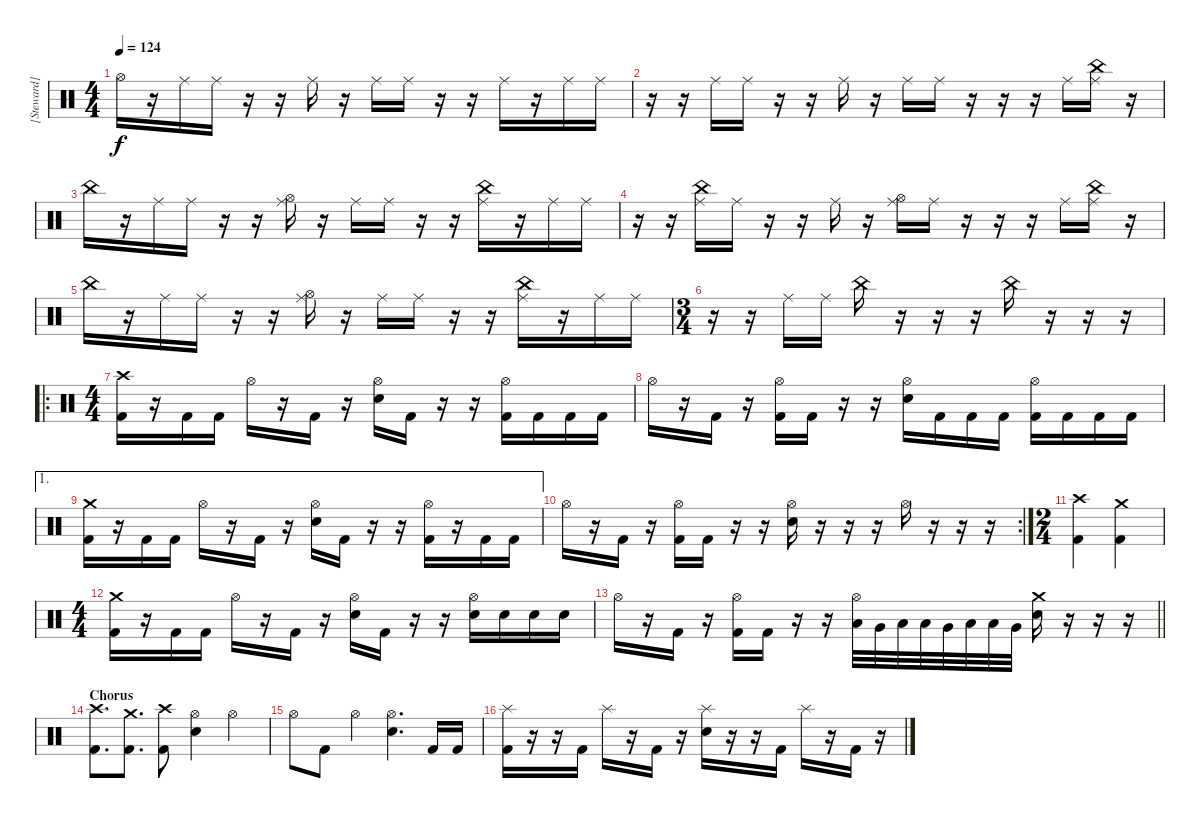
\track ("[Steward]" "[Steward]") {solo instrument percussion}
\staff {score}
\articulation defaults
\ts (4 4)
\tempo 124
\clef neutral
\ks c "Hi-Hat (open)".16{dy f}
r.16 "Ride (middle)".16 "Ride (middle)".16 r.16 r.16 "Ride (middle)".16 r.16 "Ride (middle)".16 "Ride (middle)".16 r.16 r.16 "Ride (middle)".16 r.16 "Ride (middle)".16 "Ride (middle)".16 |
r.16 r.16 "Ride (middle)".16 "Ride (middle)".16 r.16 r.16 "Ride (middle)".16 r.16 "Ride (middle)".16 "Ride (middle)".16 r.16 r.16 r.16 "Ride (middle)".16 ("China (hit)" "Ride (middle)").16 r.16 |
"China (hit)".16 r.16 "Ride (middle)".16 "Ride (middle)".16 r.16 r.16 ("Hi-Hat (open)" "Ride (middle)").16 r.16 "Ride (middle)".16 "Ride (middle)".16 r.16 r.16 ("China (hit)" "Ride (middle)").16 r.16 "Ride (middle)".16 "Ride (middle)".16 |
r.16 r.16 ("China (hit)" "Ride (middle)").16 "Ride (middle)".16 r.16 r.16 "Ride (middle)".16 r.16 ("Hi-Hat (open)" "Ride (middle)").16 "Ride (middle)".16 r.16 r.16 r.16 "Ride (middle)".16 ("China (hit)" "Ride (middle)").16 r.16 |
"China (hit)".16 r.16 "Ride (middle)".16 "Ride (middle)".16 r.16 r.16 ("Hi-Hat (open)" "Ride (middle)").16 r.16 "Ride (middle)".16 "Ride (middle)".16 r.16 r.16 ("China (hit)" "Ride (middle)").16 r.16 "Ride (middle)".16 "Ride (middle)".16 |
\ts (3 4)
r.16 r.16 "Ride (middle)".16 "Ride (middle)".16 "China (hit)".16 r.16 r.16 r.16 "China (hit)".16 r.16 r.16 r.16 |
\ro
\ts (4 4)
("Crash high (hit)" "Kick (hit) 2").16 r.16 "Kick (hit) 2".16 "Kick (hit) 2".16 "Hi-Hat (open)".16 r.16 "Kick (hit) 2".16 r.16 ("Electric Snare (hit)" "Hi-Hat (open)").16 "Kick (hit) 2".16 r.16 r.16 ("Kick (hit) 2" "Hi-Hat (open)").16 "Kick (hit) 2".16 "Kick (hit) 2".16 "Kick (hit) 2".16 |
"Hi-Hat (open)".16 r.16 "Kick (hit) 2".16 r.16 ("Kick (hit) 2" "Hi-Hat (open)").16 "Kick (hit) 2".16 r.16 r.16 ("Electric Snare (hit)" "Hi-Hat (open)").16 "Kick (hit) 2".16 "Kick (hit) 2".16 "Kick (hit) 2".16 ("Kick (hit) 2" "Hi-Hat (open)").16 "Kick (hit) 2".16 "Kick (hit) 2".16 "Kick (hit) 2".16 |
\ae 1
("Crash medium (hit)" "Kick (hit) 2").16 r.16 "Kick (hit) 2".16 "Kick (hit) 2".16 "Hi-Hat (open)".16 r.16 "Kick (hit) 2".16 r.16 ("Electric Snare (hit)" "Hi-Hat (open)").16 "Kick (hit) 2".16 r.16 r.16 ("Kick (hit) 2" "Hi-Hat (open)").16 r.16 "Kick (hit) 2".16 "Kick (hit) 2".16 |
\rc 2 "Hi-Hat (open)".16
r.16 "Kick (hit) 2".16 r.16 ("Kick (hit) 2" "Hi-Hat (open)").16 "Kick (hit) 2".16 r.16 r.16 ("Electric Snare (hit)" "Hi-Hat (open)").16 r.16 r.16 r.16 "Hi-Hat (open)".16 r.16 r.16 r.16 |
\ts (2 4)
("Crash high (hit)" "Kick (hit) 2").4 ("Crash medium (hit)" "Kick (hit) 2").4 |
\ts (4 4)
("Crash medium (hit)" "Kick (hit) 2").16 r.16 "Kick (hit) 2".16 "Kick (hit) 2".16 "Hi-Hat (open)".16 r.16 "Kick (hit) 2".16 r.16 ("Electric Snare (hit)" "Hi-Hat (open)").16 "Kick (hit) 2".16 r.16 r.16 ("Electric Snare (hit)" "Hi-Hat (open)").16 "Electric Snare (hit)".16 "Electric Snare (hit)".16 "Electric Snare (hit)".16 |
\barLineRight lightlight "Hi-Hat (open)".16
r.16 "Kick (hit) 2".16 r.16 ("Kick (hit) 2" "Hi-Hat (open)").16 "Kick (hit) 2".16 r.16 r.16 ("Low Tom (hit)" "Hi-Hat (open)").32 "Very Low Tom (hit)".32 "Low Floor Tom (hit)".32 "Low Tom (hit)".32 "Very Low Tom (hit)".32 "Low Floor Tom (hit)".32 "Low Tom (hit)".32 "Very Low Tom (hit)".32 ("Crash medium (hit)" "Electric Snare (hit)").16 r.16 r.16 r.16 |
\section ("" "Chorus")
("Crash high (hit)" "Kick (hit) 2").8{d} ("Crash medium (hit)" "Kick (hit) 2").8{d} ("Crash high (hit)" "Kick (hit) 2").8 ("Electric Snare (hit)" "Hi-Hat (open)").4 "Hi-Hat (open)".4 |
"Hi-Hat (open)".8 "Kick (hit) 2".8 "Hi-Hat (open)".4 ("Electric Snare (hit)" "Hi-Hat (open)").4{d} "Kick (hit) 2".16 "Kick (hit) 2".16 |
("Kick (hit) 2" "Splash (hit)").16 r.16 r.16 "Kick (hit) 2".16 "Splash (hit)".16 r.16 "Kick (hit) 2".16 r.16 ("Electric Snare (hit)" "Splash (hit)").16 r.16 r.16 "Kick (hit) 2".16 "Splash (hit)".16 r.16 "Kick (hit) 2".16 r.16
